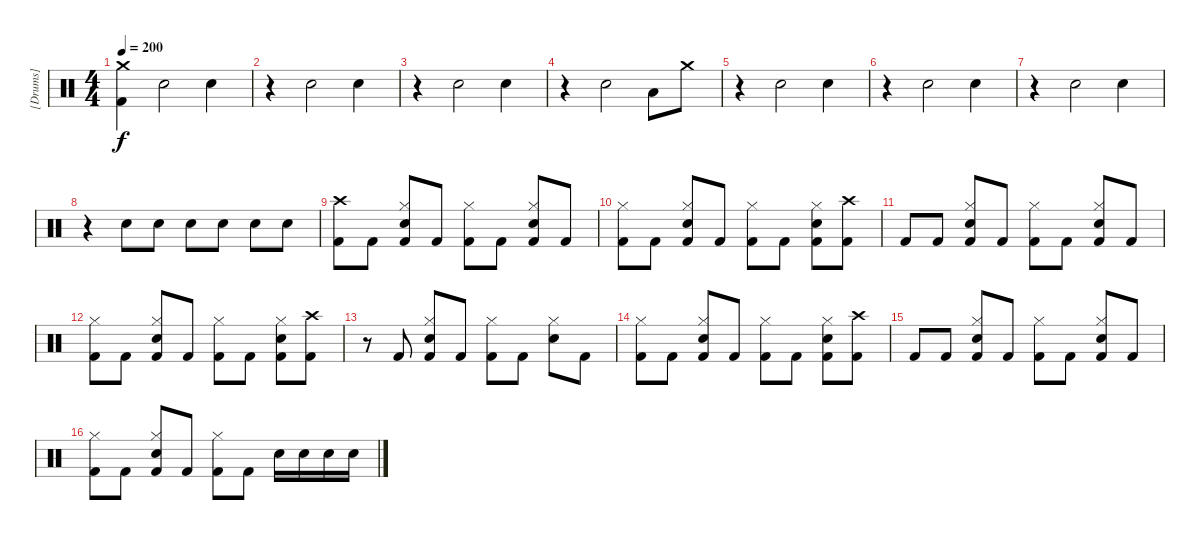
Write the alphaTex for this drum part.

\track ("[Drums]" "[Drums]") {instrument percussion}
\staff {score}
\articulation defaults
\ts (4 4)
\tempo 200
\clef neutral
\ks c
("Crash medium (hit)" "Kick (hit) 2").4{dy f} "Snare (hit) 2".2 "Snare (hit) 2".4 |
r.4 "Snare (hit) 2".2 "Snare (hit) 2".4 |
r.4 "Snare (hit) 2".2 "Snare (hit) 2".4 |
r.4 "Snare (hit) 2".2 "Low Tom (hit)".8 "Crash medium (hit)".8 |
r.4 "Snare (hit) 2".2 "Snare (hit) 2".4 |
r.4 "Snare (hit) 2".2 "Snare (hit) 2".4 |
r.4 "Snare (hit) 2".2 "Snare (hit) 2".4 |
r.4 "Snare (hit) 2".8 "Snare (hit) 2".8 "Snare (hit) 2".8 "Snare (hit) 2".8 "Snare (hit) 2".8 "Snare (hit) 2".8 |
("Crash high (hit)" "Kick (hit) 2").8 "Kick (hit) 2".8 ("Hi-Hat (closed)" "Electric Snare (hit)" "Kick (hit) 2").8 "Kick (hit) 2".8 ("Hi-Hat (closed)" "Kick (hit) 2").8 "Kick (hit) 2".8 ("Hi-Hat (closed)" "Electric Snare (hit)" "Kick (hit) 2").8 "Kick (hit) 2".8 |
("Hi-Hat (closed)" "Kick (hit) 2").8 "Kick (hit) 2".8 ("Hi-Hat (closed)" "Electric Snare (hit)" "Kick (hit) 2").8 "Kick (hit) 2".8 ("Hi-Hat (closed)" "Kick (hit) 2").8 "Kick (hit) 2".8 ("Hi-Hat (closed)" "Electric Snare (hit)" "Kick (hit) 2").8 ("Crash high (hit)" "Kick (hit) 2").8 |
"Kick (hit) 2".8 "Kick (hit) 2".8 ("Hi-Hat (closed)" "Electric Snare (hit)" "Kick (hit) 2").8 "Kick (hit) 2".8 ("Hi-Hat (closed)" "Kick (hit) 2").8 "Kick (hit) 2".8 ("Hi-Hat (closed)" "Electric Snare (hit)" "Kick (hit) 2").8 "Kick (hit) 2".8 |
("Hi-Hat (closed)" "Kick (hit) 2").8 "Kick (hit) 2".8 ("Hi-Hat (closed)" "Electric Snare (hit)" "Kick (hit) 2").8 "Kick (hit) 2".8 ("Hi-Hat (closed)" "Kick (hit) 2").8 "Kick (hit) 2".8 ("Hi-Hat (closed)" "Electric Snare (hit)" "Kick (hit) 2").8 ("Crash high (hit)" "Kick (hit) 2").8 |
r.8 "Kick (hit) 2".8 ("Hi-Hat (closed)" "Electric Snare (hit)" "Kick (hit) 2").8 "Kick (hit) 2".8 ("Hi-Hat (closed)" "Kick (hit) 2").8 "Kick (hit) 2".8 ("Hi-Hat (closed)" "Electric Snare (hit)").8 "Kick (hit) 2".8 |
("Hi-Hat (closed)" "Kick (hit) 2").8 "Kick (hit) 2".8 ("Hi-Hat (closed)" "Electric Snare (hit)" "Kick (hit) 2").8 "Kick (hit) 2".8 ("Hi-Hat (closed)" "Kick (hit) 2").8 "Kick (hit) 2".8 ("Hi-Hat (closed)" "Electric Snare (hit)" "Kick (hit) 2").8 ("Crash high (hit)" "Kick (hit) 2").8 |
"Kick (hit) 2".8 "Kick (hit) 2".8 ("Hi-Hat (closed)" "Electric Snare (hit)" "Kick (hit) 2").8 "Kick (hit) 2".8 ("Hi-Hat (closed)" "Kick (hit) 2").8 "Kick (hit) 2".8 ("Hi-Hat (closed)" "Electric Snare (hit)" "Kick (hit) 2").8 "Kick (hit) 2".8 |
("Hi-Hat (closed)" "Kick (hit) 2").8 "Kick (hit) 2".8 ("Hi-Hat (closed)" "Electric Snare (hit)" "Kick (hit) 2").8 "Kick (hit) 2".8 ("Hi-Hat (closed)" "Kick (hit) 2").8 "Kick (hit) 2".8 "Electric Snare (hit)".16 "Electric Snare (hit)".16 "Electric Snare (hit)".16 "Electric Snare (hit)".16
